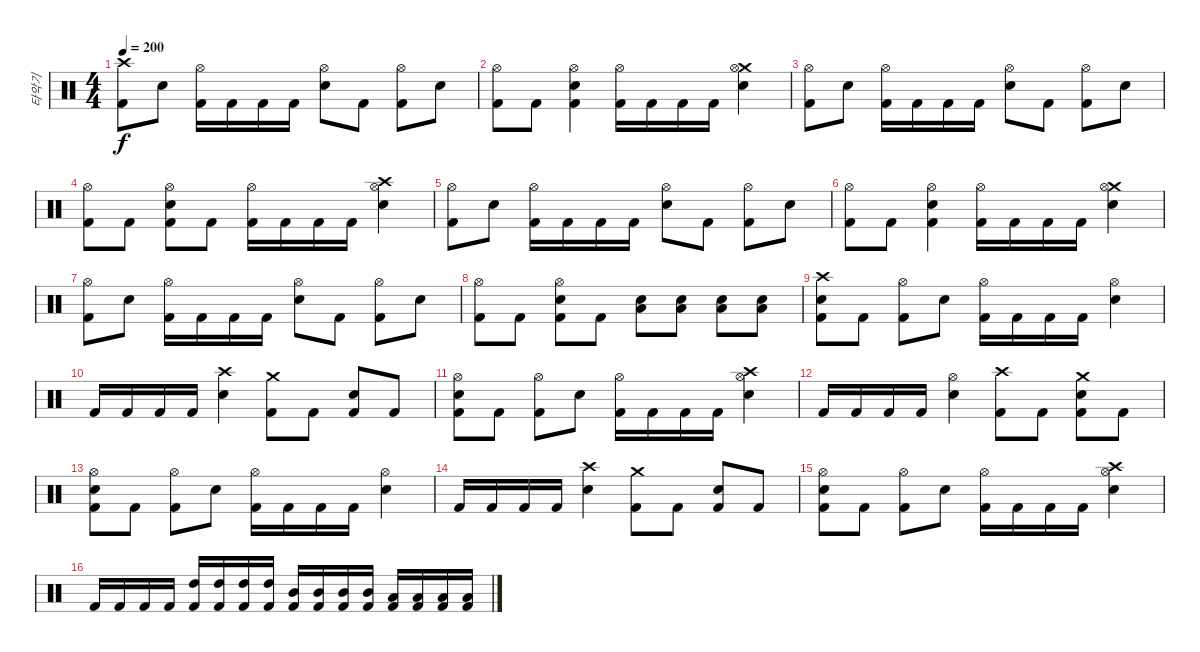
\track ("타악기" "타악기") {instrument percussion}
\staff {score}
\articulation defaults
\ts (4 4)
\tempo 200
\clef neutral
\ks c
("Crash high (hit)" "Kick (hit) 2").8{dy f} "Snare (hit) 2".8 ("Hi-Hat (open)" "Kick (hit) 2").16 "Kick (hit) 2".16 "Kick (hit) 2".16 "Kick (hit) 2".16 ("Hi-Hat (open)" "Snare (hit) 2").8 "Kick (hit) 2".8 ("Hi-Hat (open)" "Kick (hit) 2").8 "Snare (hit) 2".8 |
("Hi-Hat (open)" "Kick (hit) 2").8 "Kick (hit) 2".8 ("Hi-Hat (open)" "Snare (hit) 2" "Kick (hit) 2").4 ("Hi-Hat (open)" "Kick (hit) 2").16 "Kick (hit) 2".16 "Kick (hit) 2".16 "Kick (hit) 2".16 ("Crash medium (hit)" "Hi-Hat (open)" "Snare (hit) 2").4 |
("Hi-Hat (open)" "Kick (hit) 2").8 "Snare (hit) 2".8 ("Hi-Hat (open)" "Kick (hit) 2").16 "Kick (hit) 2".16 "Kick (hit) 2".16 "Kick (hit) 2".16 ("Hi-Hat (open)" "Snare (hit) 2").8 "Kick (hit) 2".8 ("Hi-Hat (open)" "Kick (hit) 2").8 "Snare (hit) 2".8 |
("Hi-Hat (open)" "Kick (hit) 2").8 "Kick (hit) 2".8 ("Hi-Hat (open)" "Snare (hit) 2" "Kick (hit) 2").8 "Kick (hit) 2".8 ("Hi-Hat (open)" "Kick (hit) 2").16 "Kick (hit) 2".16 "Kick (hit) 2".16 "Kick (hit) 2".16 ("Crash high (hit)" "Hi-Hat (open)" "Snare (hit) 2").4 |
("Hi-Hat (open)" "Kick (hit) 2").8 "Snare (hit) 2".8 ("Hi-Hat (open)" "Kick (hit) 2").16 "Kick (hit) 2".16 "Kick (hit) 2".16 "Kick (hit) 2".16 ("Hi-Hat (open)" "Snare (hit) 2").8 "Kick (hit) 2".8 ("Hi-Hat (open)" "Kick (hit) 2").8 "Snare (hit) 2".8 |
("Hi-Hat (open)" "Kick (hit) 2").8 "Kick (hit) 2".8 ("Hi-Hat (open)" "Snare (hit) 2" "Kick (hit) 2").4 ("Hi-Hat (open)" "Kick (hit) 2").16 "Kick (hit) 2".16 "Kick (hit) 2".16 "Kick (hit) 2".16 ("Crash medium (hit)" "Hi-Hat (open)" "Snare (hit) 2").4 |
("Hi-Hat (open)" "Kick (hit) 2").8 "Snare (hit) 2".8 ("Hi-Hat (open)" "Kick (hit) 2").16 "Kick (hit) 2".16 "Kick (hit) 2".16 "Kick (hit) 2".16 ("Hi-Hat (open)" "Snare (hit) 2").8 "Kick (hit) 2".8 ("Hi-Hat (open)" "Kick (hit) 2").8 "Snare (hit) 2".8 |
("Hi-Hat (open)" "Kick (hit) 2").8 "Kick (hit) 2".8 ("Hi-Hat (open)" "Snare (hit) 2" "Kick (hit) 2").8 "Kick (hit) 2".8 ("Low Tom (hit)" "Snare (hit) 2").8 ("Low Tom (hit)" "Snare (hit) 2").8 ("Low Tom (hit)" "Snare (hit) 2").8 ("Low Tom (hit)" "Snare (hit) 2").8 |
("Crash high (hit)" "Snare (hit) 2" "Kick (hit) 2").8 "Kick (hit) 2".8 ("Hi-Hat (open)" "Kick (hit) 2").8 "Snare (hit) 2".8 ("Hi-Hat (open)" "Kick (hit) 2").16 "Kick (hit) 2".16 "Kick (hit) 2".16 "Kick (hit) 2".16 ("Hi-Hat (open)" "Snare (hit) 2").4 |
"Kick (hit) 2".16 "Kick (hit) 2".16 "Kick (hit) 2".16 "Kick (hit) 2".16 ("Crash high (hit)" "Snare (hit) 2").4 ("Crash medium (hit)" "Kick (hit) 2").8 "Kick (hit) 2".8 ("Snare (hit) 2" "Kick (hit) 2").8 "Kick (hit) 2".8 |
("Hi-Hat (open)" "Snare (hit) 2" "Kick (hit) 2").8 "Kick (hit) 2".8 ("Hi-Hat (open)" "Kick (hit) 2").8 "Snare (hit) 2".8 ("Hi-Hat (open)" "Kick (hit) 2").16 "Kick (hit) 2".16 "Kick (hit) 2".16 "Kick (hit) 2".16 ("Crash high (hit)" "Hi-Hat (open)" "Snare (hit) 2").4 |
"Kick (hit) 2".16 "Kick (hit) 2".16 "Kick (hit) 2".16 "Kick (hit) 2".16 ("Hi-Hat (open)" "Snare (hit) 2").4 ("Crash high (hit)" "Kick (hit) 2").8 "Kick (hit) 2".8 ("Crash medium (hit)" "Snare (hit) 2" "Kick (hit) 2").8 "Kick (hit) 2".8 |
("Hi-Hat (open)" "Snare (hit) 2" "Kick (hit) 2").8 "Kick (hit) 2".8 ("Hi-Hat (open)" "Kick (hit) 2").8 "Snare (hit) 2".8 ("Hi-Hat (open)" "Kick (hit) 2").16 "Kick (hit) 2".16 "Kick (hit) 2".16 "Kick (hit) 2".16 ("Hi-Hat (open)" "Snare (hit) 2").4 |
"Kick (hit) 2".16 "Kick (hit) 2".16 "Kick (hit) 2".16 "Kick (hit) 2".16 ("Crash high (hit)" "Snare (hit) 2").4 ("Crash medium (hit)" "Kick (hit) 2").8 "Kick (hit) 2".8 ("Snare (hit) 2" "Kick (hit) 2").8 "Kick (hit) 2".8 |
("Hi-Hat (open)" "Snare (hit) 2" "Kick (hit) 2").8 "Kick (hit) 2".8 ("Hi-Hat (open)" "Kick (hit) 2").8 "Snare (hit) 2".8 ("Hi-Hat (open)" "Kick (hit) 2").16 "Kick (hit) 2".16 "Kick (hit) 2".16 "Kick (hit) 2".16 ("Crash high (hit)" "Hi-Hat (open)" "Snare (hit) 2").4 |
"Kick (hit) 2".16 "Kick (hit) 2".16 "Kick (hit) 2".16 "Kick (hit) 2".16 ("High Tom (hit)" "Kick (hit) 2").16 ("High Tom (hit)" "Kick (hit) 2").16 ("High Tom (hit)" "Kick (hit) 2").16 ("High Tom (hit)" "Kick (hit) 2").16 ("Mid Tom (hit)" "Kick (hit) 2").16 ("Mid Tom (hit)" "Kick (hit) 2").16 ("Mid Tom (hit)" "Kick (hit) 2").16 ("Mid Tom (hit)" "Kick (hit) 2").16 ("Low Tom (hit)" "Kick (hit) 2").16 ("Low Tom (hit)" "Kick (hit) 2").16 ("Low Tom (hit)" "Kick (hit) 2").16 ("Low Tom (hit)" "Kick (hit) 2").16
